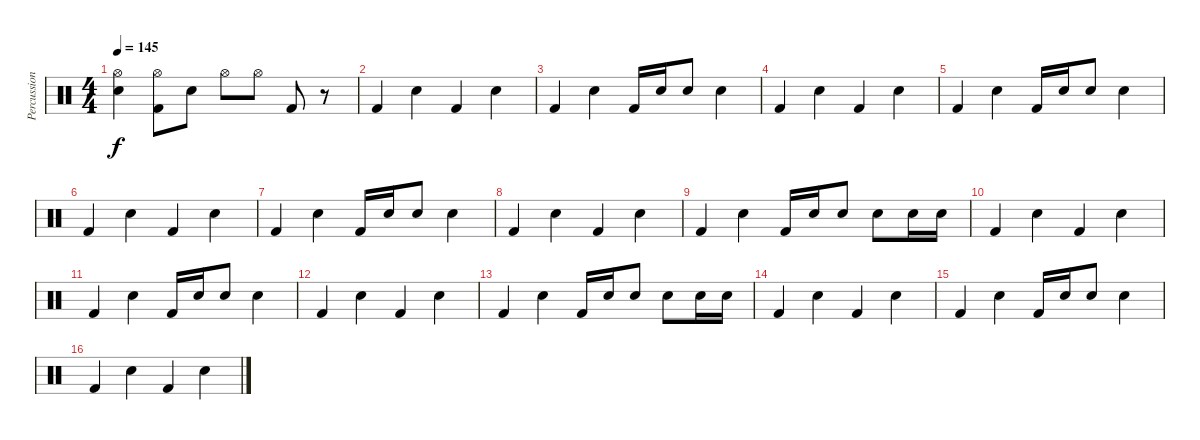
\track ("Percussion" "Percussion") {instrument percussion}
\staff {score}
\articulation defaults
\ts (4 4)
\tempo 145
\clef neutral
\ks c
("Hi-Hat (open)" "Electric Snare (hit)").4{dy f} ("Hi-Hat (open)" "Kick (hit) 2").8 "Electric Snare (hit)".8 "Hi-Hat (open)".8 "Hi-Hat (open)".8 "Kick (hit) 2".8 r.8 |
"Kick (hit) 2".4 "Electric Snare (hit)".4 "Kick (hit) 2".4 "Electric Snare (hit)".4 |
"Kick (hit) 2".4 "Electric Snare (hit)".4 "Kick (hit) 2".16 "Electric Snare (hit)".16 "Electric Snare (hit)".8 "Electric Snare (hit)".4 |
"Kick (hit) 2".4 "Electric Snare (hit)".4 "Kick (hit) 2".4 "Electric Snare (hit)".4 |
"Kick (hit) 2".4 "Electric Snare (hit)".4 "Kick (hit) 2".16 "Electric Snare (hit)".16 "Electric Snare (hit)".8 "Electric Snare (hit)".4 |
"Kick (hit) 2".4 "Electric Snare (hit)".4 "Kick (hit) 2".4 "Electric Snare (hit)".4 |
"Kick (hit) 2".4 "Electric Snare (hit)".4 "Kick (hit) 2".16 "Electric Snare (hit)".16 "Electric Snare (hit)".8 "Electric Snare (hit)".4 |
"Kick (hit) 2".4 "Electric Snare (hit)".4 "Kick (hit) 2".4 "Electric Snare (hit)".4 |
"Kick (hit) 2".4 "Electric Snare (hit)".4 "Kick (hit) 2".16 "Electric Snare (hit)".16 "Electric Snare (hit)".8 "Electric Snare (hit)".8 "Electric Snare (hit)".16 "Electric Snare (hit)".16 |
"Kick (hit) 2".4 "Electric Snare (hit)".4 "Kick (hit) 2".4 "Electric Snare (hit)".4 |
"Kick (hit) 2".4 "Electric Snare (hit)".4 "Kick (hit) 2".16 "Electric Snare (hit)".16 "Electric Snare (hit)".8 "Electric Snare (hit)".4 |
"Kick (hit) 2".4 "Electric Snare (hit)".4 "Kick (hit) 2".4 "Electric Snare (hit)".4 |
"Kick (hit) 2".4 "Electric Snare (hit)".4 "Kick (hit) 2".16 "Electric Snare (hit)".16 "Electric Snare (hit)".8 "Electric Snare (hit)".8 "Electric Snare (hit)".16 "Electric Snare (hit)".16 |
"Kick (hit) 2".4 "Electric Snare (hit)".4 "Kick (hit) 2".4 "Electric Snare (hit)".4 |
"Kick (hit) 2".4 "Electric Snare (hit)".4 "Kick (hit) 2".16 "Electric Snare (hit)".16 "Electric Snare (hit)".8 "Electric Snare (hit)".4 |
"Kick (hit) 2".4 "Electric Snare (hit)".4 "Kick (hit) 2".4 "Electric Snare (hit)".4
